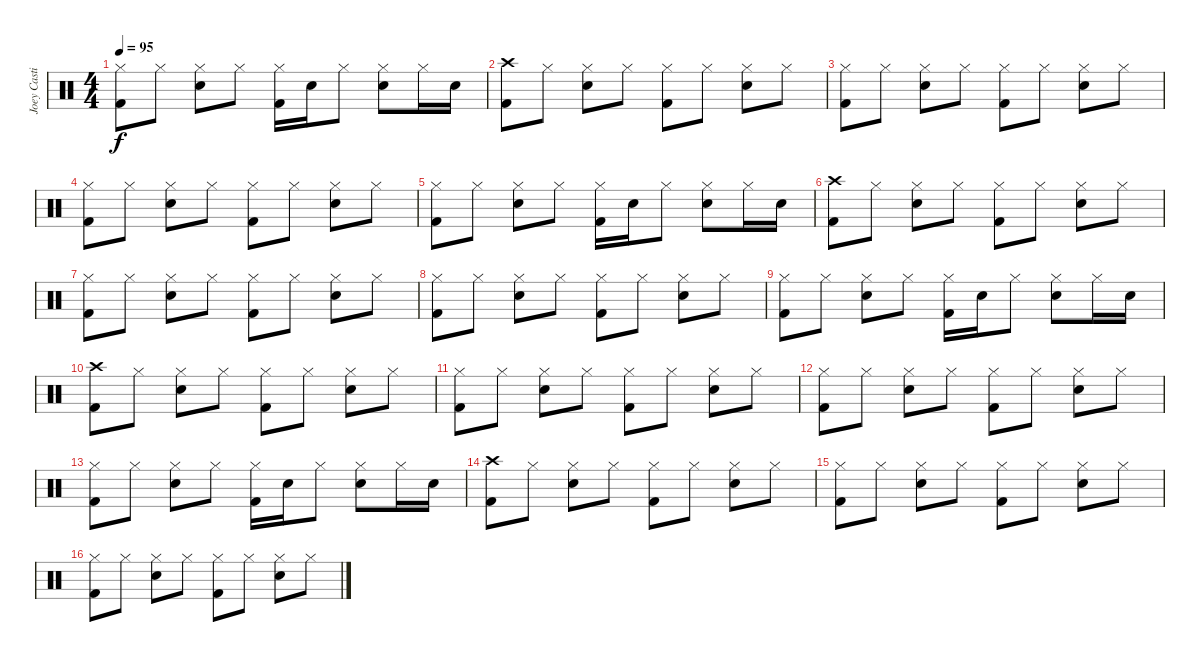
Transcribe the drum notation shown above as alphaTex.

\track ("Joey Castillo" "Joey Casti") {instrument percussion}
\staff {score}
\articulation defaults
\ts (4 4)
\tempo 95
\clef neutral
\ks c
("Hi-Hat (closed)" "Kick (hit) 2").8{dy f} "Hi-Hat (closed)".8 ("Hi-Hat (closed)" "Snare (hit) 2").8 "Hi-Hat (closed)".8 ("Hi-Hat (closed)" "Kick (hit) 2").16 "Snare (hit) 2".16 "Hi-Hat (closed)".8 ("Hi-Hat (closed)" "Snare (hit) 2").8 "Hi-Hat (closed)".16 "Snare (hit) 2".16 |
("Crash high (hit)" "Kick (hit) 2").8 "Hi-Hat (closed)".8 ("Hi-Hat (closed)" "Snare (hit) 2").8 "Hi-Hat (closed)".8 ("Hi-Hat (closed)" "Kick (hit) 2").8 "Hi-Hat (closed)".8 ("Hi-Hat (closed)" "Snare (hit) 2").8 "Hi-Hat (closed)".8 |
("Hi-Hat (closed)" "Kick (hit) 2").8 "Hi-Hat (closed)".8 ("Hi-Hat (closed)" "Snare (hit) 2").8 "Hi-Hat (closed)".8 ("Hi-Hat (closed)" "Kick (hit) 2").8 "Hi-Hat (closed)".8 ("Hi-Hat (closed)" "Snare (hit) 2").8 "Hi-Hat (closed)".8 |
("Hi-Hat (closed)" "Kick (hit) 2").8 "Hi-Hat (closed)".8 ("Hi-Hat (closed)" "Snare (hit) 2").8 "Hi-Hat (closed)".8 ("Hi-Hat (closed)" "Kick (hit) 2").8 "Hi-Hat (closed)".8 ("Hi-Hat (closed)" "Snare (hit) 2").8 "Hi-Hat (closed)".8 |
("Hi-Hat (closed)" "Kick (hit) 2").8 "Hi-Hat (closed)".8 ("Hi-Hat (closed)" "Snare (hit) 2").8 "Hi-Hat (closed)".8 ("Hi-Hat (closed)" "Kick (hit) 2").16 "Snare (hit) 2".16 "Hi-Hat (closed)".8 ("Hi-Hat (closed)" "Snare (hit) 2").8 "Hi-Hat (closed)".16 "Snare (hit) 2".16 |
("Crash high (hit)" "Kick (hit) 2").8 "Hi-Hat (closed)".8 ("Hi-Hat (closed)" "Snare (hit) 2").8 "Hi-Hat (closed)".8 ("Hi-Hat (closed)" "Kick (hit) 2").8 "Hi-Hat (closed)".8 ("Hi-Hat (closed)" "Snare (hit) 2").8 "Hi-Hat (closed)".8 |
("Hi-Hat (closed)" "Kick (hit) 2").8 "Hi-Hat (closed)".8 ("Hi-Hat (closed)" "Snare (hit) 2").8 "Hi-Hat (closed)".8 ("Hi-Hat (closed)" "Kick (hit) 2").8 "Hi-Hat (closed)".8 ("Hi-Hat (closed)" "Snare (hit) 2").8 "Hi-Hat (closed)".8 |
("Hi-Hat (closed)" "Kick (hit) 2").8 "Hi-Hat (closed)".8 ("Hi-Hat (closed)" "Snare (hit) 2").8 "Hi-Hat (closed)".8 ("Hi-Hat (closed)" "Kick (hit) 2").8 "Hi-Hat (closed)".8 ("Hi-Hat (closed)" "Snare (hit) 2").8 "Hi-Hat (closed)".8 |
("Hi-Hat (closed)" "Kick (hit) 2").8 "Hi-Hat (closed)".8 ("Hi-Hat (closed)" "Snare (hit) 2").8 "Hi-Hat (closed)".8 ("Hi-Hat (closed)" "Kick (hit) 2").16 "Snare (hit) 2".16 "Hi-Hat (closed)".8 ("Hi-Hat (closed)" "Snare (hit) 2").8 "Hi-Hat (closed)".16 "Snare (hit) 2".16 |
("Crash high (hit)" "Kick (hit) 2").8 "Hi-Hat (closed)".8 ("Hi-Hat (closed)" "Snare (hit) 2").8 "Hi-Hat (closed)".8 ("Hi-Hat (closed)" "Kick (hit) 2").8 "Hi-Hat (closed)".8 ("Hi-Hat (closed)" "Snare (hit) 2").8 "Hi-Hat (closed)".8 |
("Hi-Hat (closed)" "Kick (hit) 2").8 "Hi-Hat (closed)".8 ("Hi-Hat (closed)" "Snare (hit) 2").8 "Hi-Hat (closed)".8 ("Hi-Hat (closed)" "Kick (hit) 2").8 "Hi-Hat (closed)".8 ("Hi-Hat (closed)" "Snare (hit) 2").8 "Hi-Hat (closed)".8 |
("Hi-Hat (closed)" "Kick (hit) 2").8 "Hi-Hat (closed)".8 ("Hi-Hat (closed)" "Snare (hit) 2").8 "Hi-Hat (closed)".8 ("Hi-Hat (closed)" "Kick (hit) 2").8 "Hi-Hat (closed)".8 ("Hi-Hat (closed)" "Snare (hit) 2").8 "Hi-Hat (closed)".8 |
("Hi-Hat (closed)" "Kick (hit) 2").8 "Hi-Hat (closed)".8 ("Hi-Hat (closed)" "Snare (hit) 2").8 "Hi-Hat (closed)".8 ("Hi-Hat (closed)" "Kick (hit) 2").16 "Snare (hit) 2".16 "Hi-Hat (closed)".8 ("Hi-Hat (closed)" "Snare (hit) 2").8 "Hi-Hat (closed)".16 "Snare (hit) 2".16 |
("Crash high (hit)" "Kick (hit) 2").8 "Hi-Hat (closed)".8 ("Hi-Hat (closed)" "Snare (hit) 2").8 "Hi-Hat (closed)".8 ("Hi-Hat (closed)" "Kick (hit) 2").8 "Hi-Hat (closed)".8 ("Hi-Hat (closed)" "Snare (hit) 2").8 "Hi-Hat (closed)".8 |
("Hi-Hat (closed)" "Kick (hit) 2").8 "Hi-Hat (closed)".8 ("Hi-Hat (closed)" "Snare (hit) 2").8 "Hi-Hat (closed)".8 ("Hi-Hat (closed)" "Kick (hit) 2").8 "Hi-Hat (closed)".8 ("Hi-Hat (closed)" "Snare (hit) 2").8 "Hi-Hat (closed)".8 |
("Hi-Hat (closed)" "Kick (hit) 2").8 "Hi-Hat (closed)".8 ("Hi-Hat (closed)" "Snare (hit) 2").8 "Hi-Hat (closed)".8 ("Hi-Hat (closed)" "Kick (hit) 2").8 "Hi-Hat (closed)".8 ("Hi-Hat (closed)" "Snare (hit) 2").8 "Hi-Hat (closed)".8
